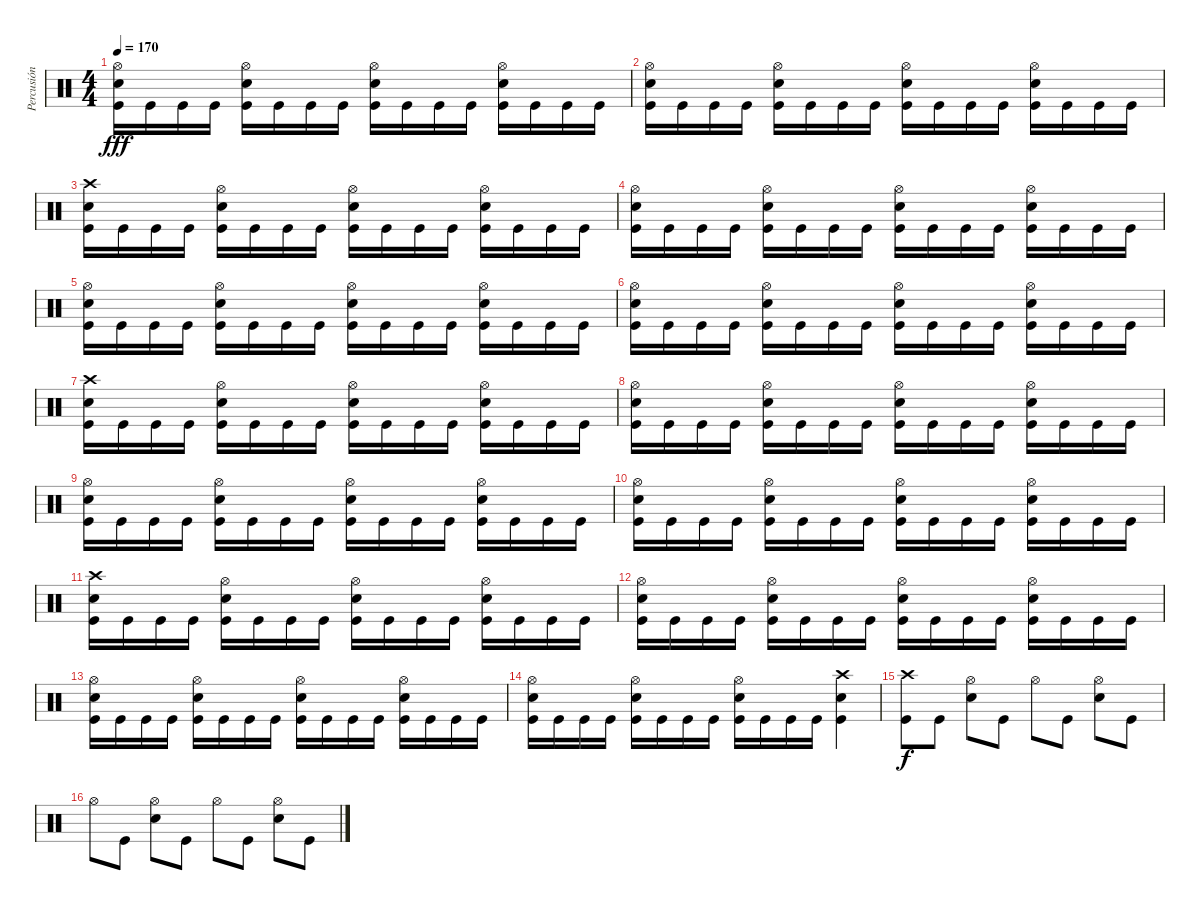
\track ("Percusión" "Percusión") {instrument percussion}
\staff {score}
\articulation defaults
\ts (4 4)
\tempo 170
\clef neutral
\ks c
("Hi-Hat (open)" "Electric Snare (hit)" "Kick (hit)").16{dy fff} "Kick (hit)".16 "Kick (hit)".16 "Kick (hit)".16 ("Hi-Hat (open)" "Electric Snare (hit)" "Kick (hit)").16 "Kick (hit)".16 "Kick (hit)".16 "Kick (hit)".16 ("Hi-Hat (open)" "Electric Snare (hit)" "Kick (hit)").16 "Kick (hit)".16 "Kick (hit)".16 "Kick (hit)".16 ("Hi-Hat (open)" "Electric Snare (hit)" "Kick (hit)").16 "Kick (hit)".16 "Kick (hit)".16 "Kick (hit)".16 |
("Hi-Hat (open)" "Electric Snare (hit)" "Kick (hit)").16 "Kick (hit)".16 "Kick (hit)".16 "Kick (hit)".16 ("Hi-Hat (open)" "Electric Snare (hit)" "Kick (hit)").16 "Kick (hit)".16 "Kick (hit)".16 "Kick (hit)".16 ("Hi-Hat (open)" "Electric Snare (hit)" "Kick (hit)").16 "Kick (hit)".16 "Kick (hit)".16 "Kick (hit)".16 ("Hi-Hat (open)" "Electric Snare (hit)" "Kick (hit)").16 "Kick (hit)".16 "Kick (hit)".16 "Kick (hit)".16 |
("Crash high (hit)" "Electric Snare (hit)" "Kick (hit)").16 "Kick (hit)".16 "Kick (hit)".16 "Kick (hit)".16 ("Hi-Hat (open)" "Electric Snare (hit)" "Kick (hit)").16 "Kick (hit)".16 "Kick (hit)".16 "Kick (hit)".16 ("Hi-Hat (open)" "Electric Snare (hit)" "Kick (hit)").16 "Kick (hit)".16 "Kick (hit)".16 "Kick (hit)".16 ("Hi-Hat (open)" "Electric Snare (hit)" "Kick (hit)").16 "Kick (hit)".16 "Kick (hit)".16 "Kick (hit)".16 |
("Hi-Hat (open)" "Electric Snare (hit)" "Kick (hit)").16 "Kick (hit)".16 "Kick (hit)".16 "Kick (hit)".16 ("Hi-Hat (open)" "Electric Snare (hit)" "Kick (hit)").16 "Kick (hit)".16 "Kick (hit)".16 "Kick (hit)".16 ("Hi-Hat (open)" "Electric Snare (hit)" "Kick (hit)").16 "Kick (hit)".16 "Kick (hit)".16 "Kick (hit)".16 ("Hi-Hat (open)" "Electric Snare (hit)" "Kick (hit)").16 "Kick (hit)".16 "Kick (hit)".16 "Kick (hit)".16 |
("Hi-Hat (open)" "Electric Snare (hit)" "Kick (hit)").16 "Kick (hit)".16 "Kick (hit)".16 "Kick (hit)".16 ("Hi-Hat (open)" "Electric Snare (hit)" "Kick (hit)").16 "Kick (hit)".16 "Kick (hit)".16 "Kick (hit)".16 ("Hi-Hat (open)" "Electric Snare (hit)" "Kick (hit)").16 "Kick (hit)".16 "Kick (hit)".16 "Kick (hit)".16 ("Hi-Hat (open)" "Electric Snare (hit)" "Kick (hit)").16 "Kick (hit)".16 "Kick (hit)".16 "Kick (hit)".16 |
("Hi-Hat (open)" "Electric Snare (hit)" "Kick (hit)").16 "Kick (hit)".16 "Kick (hit)".16 "Kick (hit)".16 ("Hi-Hat (open)" "Electric Snare (hit)" "Kick (hit)").16 "Kick (hit)".16 "Kick (hit)".16 "Kick (hit)".16 ("Hi-Hat (open)" "Electric Snare (hit)" "Kick (hit)").16 "Kick (hit)".16 "Kick (hit)".16 "Kick (hit)".16 ("Hi-Hat (open)" "Electric Snare (hit)" "Kick (hit)").16 "Kick (hit)".16 "Kick (hit)".16 "Kick (hit)".16 |
("Crash high (hit)" "Electric Snare (hit)" "Kick (hit)").16 "Kick (hit)".16 "Kick (hit)".16 "Kick (hit)".16 ("Hi-Hat (open)" "Electric Snare (hit)" "Kick (hit)").16 "Kick (hit)".16 "Kick (hit)".16 "Kick (hit)".16 ("Hi-Hat (open)" "Electric Snare (hit)" "Kick (hit)").16 "Kick (hit)".16 "Kick (hit)".16 "Kick (hit)".16 ("Hi-Hat (open)" "Electric Snare (hit)" "Kick (hit)").16 "Kick (hit)".16 "Kick (hit)".16 "Kick (hit)".16 |
("Hi-Hat (open)" "Electric Snare (hit)" "Kick (hit)").16 "Kick (hit)".16 "Kick (hit)".16 "Kick (hit)".16 ("Hi-Hat (open)" "Electric Snare (hit)" "Kick (hit)").16 "Kick (hit)".16 "Kick (hit)".16 "Kick (hit)".16 ("Hi-Hat (open)" "Electric Snare (hit)" "Kick (hit)").16 "Kick (hit)".16 "Kick (hit)".16 "Kick (hit)".16 ("Hi-Hat (open)" "Electric Snare (hit)" "Kick (hit)").16 "Kick (hit)".16 "Kick (hit)".16 "Kick (hit)".16 |
("Hi-Hat (open)" "Electric Snare (hit)" "Kick (hit)").16 "Kick (hit)".16 "Kick (hit)".16 "Kick (hit)".16 ("Hi-Hat (open)" "Electric Snare (hit)" "Kick (hit)").16 "Kick (hit)".16 "Kick (hit)".16 "Kick (hit)".16 ("Hi-Hat (open)" "Electric Snare (hit)" "Kick (hit)").16 "Kick (hit)".16 "Kick (hit)".16 "Kick (hit)".16 ("Hi-Hat (open)" "Electric Snare (hit)" "Kick (hit)").16 "Kick (hit)".16 "Kick (hit)".16 "Kick (hit)".16 |
("Hi-Hat (open)" "Electric Snare (hit)" "Kick (hit)").16 "Kick (hit)".16 "Kick (hit)".16 "Kick (hit)".16 ("Hi-Hat (open)" "Electric Snare (hit)" "Kick (hit)").16 "Kick (hit)".16 "Kick (hit)".16 "Kick (hit)".16 ("Hi-Hat (open)" "Electric Snare (hit)" "Kick (hit)").16 "Kick (hit)".16 "Kick (hit)".16 "Kick (hit)".16 ("Hi-Hat (open)" "Electric Snare (hit)" "Kick (hit)").16 "Kick (hit)".16 "Kick (hit)".16 "Kick (hit)".16 |
("Crash high (hit)" "Electric Snare (hit)" "Kick (hit)").16 "Kick (hit)".16 "Kick (hit)".16 "Kick (hit)".16 ("Hi-Hat (open)" "Electric Snare (hit)" "Kick (hit)").16 "Kick (hit)".16 "Kick (hit)".16 "Kick (hit)".16 ("Hi-Hat (open)" "Electric Snare (hit)" "Kick (hit)").16 "Kick (hit)".16 "Kick (hit)".16 "Kick (hit)".16 ("Hi-Hat (open)" "Electric Snare (hit)" "Kick (hit)").16 "Kick (hit)".16 "Kick (hit)".16 "Kick (hit)".16 |
("Hi-Hat (open)" "Electric Snare (hit)" "Kick (hit)").16 "Kick (hit)".16 "Kick (hit)".16 "Kick (hit)".16 ("Hi-Hat (open)" "Electric Snare (hit)" "Kick (hit)").16 "Kick (hit)".16 "Kick (hit)".16 "Kick (hit)".16 ("Hi-Hat (open)" "Electric Snare (hit)" "Kick (hit)").16 "Kick (hit)".16 "Kick (hit)".16 "Kick (hit)".16 ("Hi-Hat (open)" "Electric Snare (hit)" "Kick (hit)").16 "Kick (hit)".16 "Kick (hit)".16 "Kick (hit)".16 |
("Hi-Hat (open)" "Electric Snare (hit)" "Kick (hit)").16 "Kick (hit)".16 "Kick (hit)".16 "Kick (hit)".16 ("Hi-Hat (open)" "Electric Snare (hit)" "Kick (hit)").16 "Kick (hit)".16 "Kick (hit)".16 "Kick (hit)".16 ("Hi-Hat (open)" "Electric Snare (hit)" "Kick (hit)").16 "Kick (hit)".16 "Kick (hit)".16 "Kick (hit)".16 ("Hi-Hat (open)" "Electric Snare (hit)" "Kick (hit)").16 "Kick (hit)".16 "Kick (hit)".16 "Kick (hit)".16 |
("Hi-Hat (open)" "Electric Snare (hit)" "Kick (hit)").16 "Kick (hit)".16 "Kick (hit)".16 "Kick (hit)".16 ("Hi-Hat (open)" "Electric Snare (hit)" "Kick (hit)").16 "Kick (hit)".16 "Kick (hit)".16 "Kick (hit)".16 ("Hi-Hat (open)" "Electric Snare (hit)" "Kick (hit)").16 "Kick (hit)".16 "Kick (hit)".16 "Kick (hit)".16 ("Crash high (hit)" "Electric Snare (hit)" "Kick (hit)").4 |
("Crash high (hit)" "Kick (hit)").8{dy f} "Kick (hit)".8 ("Hi-Hat (open)" "Electric Snare (hit)").8 "Kick (hit)".8 "Hi-Hat (open)".8 "Kick (hit)".8 ("Hi-Hat (open)" "Electric Snare (hit)").8 "Kick (hit)".8 |
"Hi-Hat (open)".8 "Kick (hit)".8 ("Hi-Hat (open)" "Electric Snare (hit)").8 "Kick (hit)".8 "Hi-Hat (open)".8 "Kick (hit)".8 ("Hi-Hat (open)" "Electric Snare (hit)").8 "Kick (hit)".8
